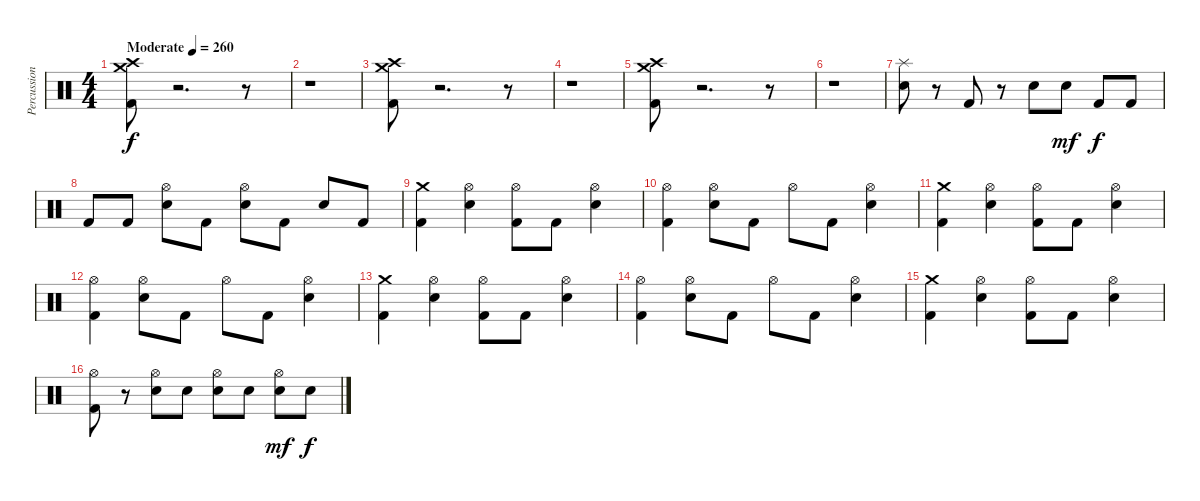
\track ("Percussion" "Percussion") {instrument percussion}
\staff {score}
\articulation defaults
\ts (4 4)
\tempo (260 "Moderate")
\clef neutral
\ks c
("Kick (hit) 2" "Crash medium (hit)" "Crash high (hit)").8{dy f} r.2{d} r.8 |
r.1 |
("Kick (hit) 2" "Crash medium (hit)" "Crash high (hit)").8 r.2{d} r.8 |
r.1 |
("Kick (hit) 2" "Crash medium (hit)" "Crash high (hit)").8 r.2{d} r.8 |
r.1 |
("Electric Snare (hit)" "Splash (hit)").8 r.8 "Kick (hit) 2".8 r.8 "Electric Snare (hit)".8 "Electric Snare (hit)".8{dy mf} "Kick (hit) 2".8{dy f} "Kick (hit) 2".8 |
"Kick (hit) 2".8 "Kick (hit) 2".8 ("Electric Snare (hit)" "Hi-Hat (open)").8 "Kick (hit) 2".8 ("Electric Snare (hit)" "Hi-Hat (open)").8 "Kick (hit) 2".8 "Electric Snare (hit)".8 "Kick (hit) 2".8 |
("Kick (hit) 2" "Crash medium (hit)").4 ("Electric Snare (hit)" "Hi-Hat (open)").4 ("Kick (hit) 2" "Hi-Hat (open)").8 "Kick (hit) 2".8 ("Electric Snare (hit)" "Hi-Hat (open)").4 |
("Kick (hit) 2" "Hi-Hat (open)").4 ("Electric Snare (hit)" "Hi-Hat (open)").8 "Kick (hit) 2".8 "Hi-Hat (open)".8 "Kick (hit) 2".8 ("Electric Snare (hit)" "Hi-Hat (open)").4 |
("Kick (hit) 2" "Crash medium (hit)").4 ("Electric Snare (hit)" "Hi-Hat (open)").4 ("Kick (hit) 2" "Hi-Hat (open)").8 "Kick (hit) 2".8 ("Electric Snare (hit)" "Hi-Hat (open)").4 |
("Kick (hit) 2" "Hi-Hat (open)").4 ("Electric Snare (hit)" "Hi-Hat (open)").8 "Kick (hit) 2".8 "Hi-Hat (open)".8 "Kick (hit) 2".8 ("Electric Snare (hit)" "Hi-Hat (open)").4 |
("Kick (hit) 2" "Crash medium (hit)").4 ("Electric Snare (hit)" "Hi-Hat (open)").4 ("Kick (hit) 2" "Hi-Hat (open)").8 "Kick (hit) 2".8 ("Electric Snare (hit)" "Hi-Hat (open)").4 |
("Kick (hit) 2" "Hi-Hat (open)").4 ("Electric Snare (hit)" "Hi-Hat (open)").8 "Kick (hit) 2".8 "Hi-Hat (open)".8 "Kick (hit) 2".8 ("Electric Snare (hit)" "Hi-Hat (open)").4 |
("Kick (hit) 2" "Crash medium (hit)").4 ("Electric Snare (hit)" "Hi-Hat (open)").4 ("Kick (hit) 2" "Hi-Hat (open)").8 "Kick (hit) 2".8 ("Electric Snare (hit)" "Hi-Hat (open)").4 |
("Kick (hit) 2" "Hi-Hat (open)").8 r.8 ("Electric Snare (hit)" "Hi-Hat (open)").8 "Electric Snare (hit)".8 ("Electric Snare (hit)" "Hi-Hat (open)").8 "Electric Snare (hit)".8 ("Electric Snare (hit)" "Hi-Hat (open)").8{dy mf} "Electric Snare (hit)".8{dy f}
